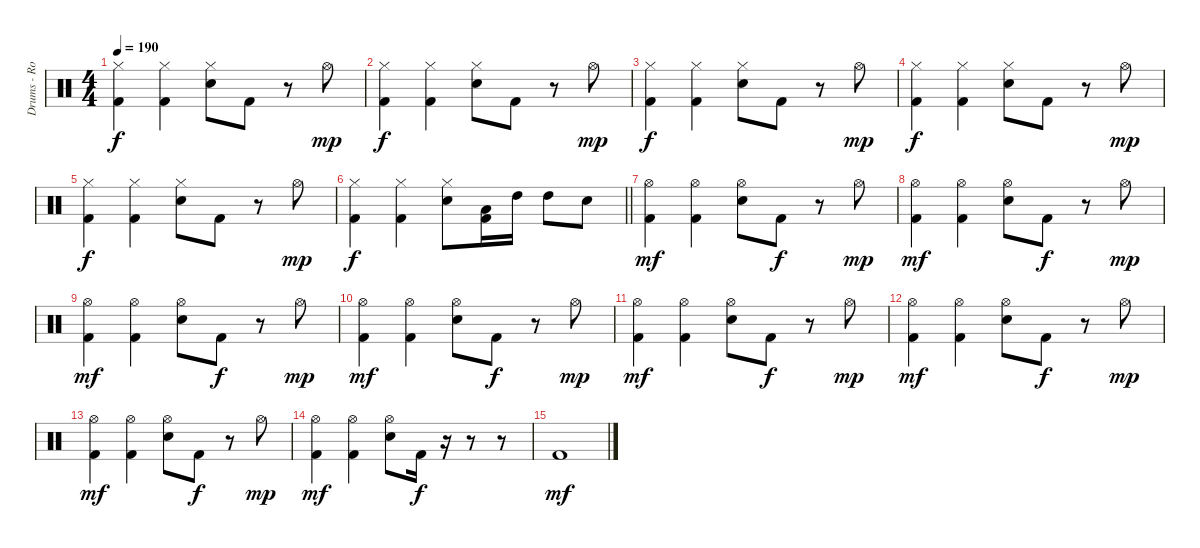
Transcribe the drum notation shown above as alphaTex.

\track ("Drums - Rob Bourdon" "Drums - Ro") {instrument percussion}
\staff {score}
\articulation defaults
\ts (4 4)
\tempo 190
\clef neutral
\ks c
("Hi-Hat (closed)" "Kick (hit) 2").4{dy f} ("Hi-Hat (closed)" "Kick (hit) 2").4 ("Hi-Hat (closed)" "Snare (hit) 2").8 "Kick (hit) 2".8 r.8 "Hi-Hat (open)".8{dy mp} |
("Hi-Hat (closed)" "Kick (hit) 2").4{dy f} ("Hi-Hat (closed)" "Kick (hit) 2").4 ("Hi-Hat (closed)" "Snare (hit) 2").8 "Kick (hit) 2".8 r.8 "Hi-Hat (open)".8{dy mp} |
("Hi-Hat (closed)" "Kick (hit) 2").4{dy f} ("Hi-Hat (closed)" "Kick (hit) 2").4 ("Hi-Hat (closed)" "Snare (hit) 2").8 "Kick (hit) 2".8 r.8 "Hi-Hat (open)".8{dy mp} |
("Hi-Hat (closed)" "Kick (hit) 2").4{dy f} ("Hi-Hat (closed)" "Kick (hit) 2").4 ("Hi-Hat (closed)" "Snare (hit) 2").8 "Kick (hit) 2".8 r.8 "Hi-Hat (open)".8{dy mp} |
("Hi-Hat (closed)" "Kick (hit) 2").4{dy f} ("Hi-Hat (closed)" "Kick (hit) 2").4 ("Hi-Hat (closed)" "Snare (hit) 2").8 "Kick (hit) 2".8 r.8 "Hi-Hat (open)".8{dy mp} |
\barLineRight lightlight
("Hi-Hat (closed)" "Kick (hit) 2").4{dy f} ("Hi-Hat (closed)" "Kick (hit) 2").4 ("Hi-Hat (closed)" "Snare (hit) 2").8 ("Low Tom (hit)" "Kick (hit) 2").16 "High Tom (hit)".16 "High Tom (hit)".8 "Snare (hit) 2".8 |
("Hi-Hat (open)" "Kick (hit) 2").4{dy mf} ("Hi-Hat (open)" "Kick (hit) 2").4 ("Hi-Hat (open)" "Snare (hit) 2").8 "Kick (hit) 2".8{dy f} r.8 "Hi-Hat (open)".8{dy mp} |
("Hi-Hat (open)" "Kick (hit) 2").4{dy mf} ("Hi-Hat (open)" "Kick (hit) 2").4 ("Hi-Hat (open)" "Snare (hit) 2").8 "Kick (hit) 2".8{dy f} r.8 "Hi-Hat (open)".8{dy mp} |
("Hi-Hat (open)" "Kick (hit) 2").4{dy mf} ("Hi-Hat (open)" "Kick (hit) 2").4 ("Hi-Hat (open)" "Snare (hit) 2").8 "Kick (hit) 2".8{dy f} r.8 "Hi-Hat (open)".8{dy mp} |
("Hi-Hat (open)" "Kick (hit) 2").4{dy mf} ("Hi-Hat (open)" "Kick (hit) 2").4 ("Hi-Hat (open)" "Snare (hit) 2").8 "Kick (hit) 2".8{dy f} r.8 "Hi-Hat (open)".8{dy mp} |
("Hi-Hat (open)" "Kick (hit) 2").4{dy mf} ("Hi-Hat (open)" "Kick (hit) 2").4 ("Hi-Hat (open)" "Snare (hit) 2").8 "Kick (hit) 2".8{dy f} r.8 "Hi-Hat (open)".8{dy mp} |
("Hi-Hat (open)" "Kick (hit) 2").4{dy mf} ("Hi-Hat (open)" "Kick (hit) 2").4 ("Hi-Hat (open)" "Snare (hit) 2").8 "Kick (hit) 2".8{dy f} r.8 "Hi-Hat (open)".8{dy mp} |
("Hi-Hat (open)" "Kick (hit) 2").4{dy mf} ("Hi-Hat (open)" "Kick (hit) 2").4 ("Hi-Hat (open)" "Snare (hit) 2").8 "Kick (hit) 2".8{dy f} r.8 "Hi-Hat (open)".8{dy mp} |
("Hi-Hat (open)" "Kick (hit) 2").4{dy mf} ("Hi-Hat (open)" "Kick (hit) 2").4 ("Hi-Hat (open)" "Snare (hit) 2").8 "Kick (hit) 2".16{dy f} r.16 r.8 r.8 |
"Kick (hit) 2".1{dy mf}
